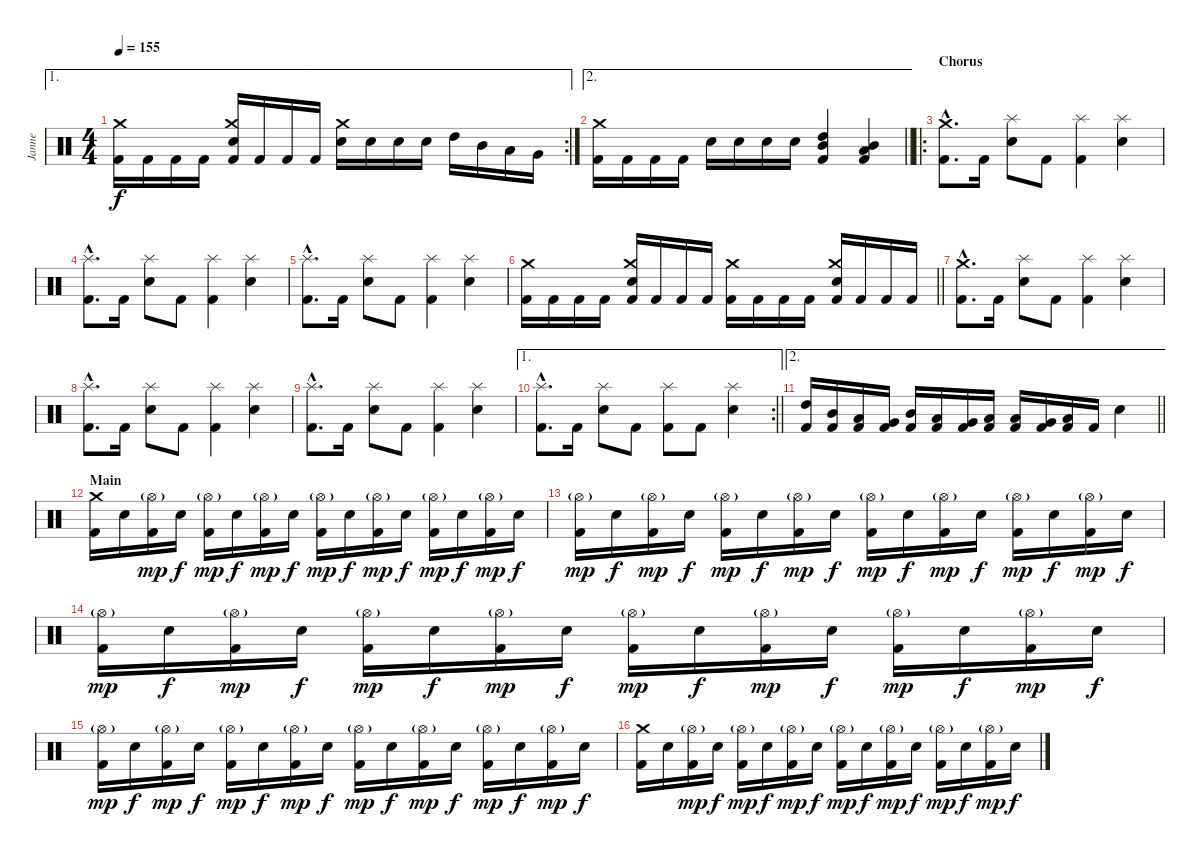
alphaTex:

\track ("Janne" "Janne") {instrument percussion}
\staff {score}
\articulation defaults
\ae 1
\rc 2
\ts (4 4)
\tempo 155
\clef neutral
\ks c
("Kick (hit) 2" "Crash medium (hit)").16{dy f} "Kick (hit) 2".16 "Kick (hit) 2".16 "Kick (hit) 2".16 ("Kick (hit) 2" "Snare (hit) 2" "Crash medium (hit)").16 "Kick (hit) 2".16 "Kick (hit) 2".16 "Kick (hit) 2".16 ("Snare (hit) 2" "Crash medium (hit)").16 "Snare (hit) 2".16 "Snare (hit) 2".16 "Snare (hit) 2".16 "High Tom (hit)".16 "Mid Tom (hit)".16 "Low Tom (hit)".16 "Very Low Tom (hit)".16 |
\ae 2
\barLineRight lightlight
("Kick (hit) 2" "Crash medium (hit)").16 "Kick (hit) 2".16 "Kick (hit) 2".16 "Kick (hit) 2".16 "Snare (hit) 2".16 "Snare (hit) 2".16 "Snare (hit) 2".16 "Snare (hit) 2".16 ("Kick (hit) 2" "High Tom (hit)" "Mid Tom (hit)").4 ("Kick (hit) 2" "Mid Tom (hit)" "Low Tom (hit)").4 |
\ro
\section ("" "Chorus")
("Kick (hit) 2"{hac} "Crash medium (hit)"{hac}).8{d} "Kick (hit) 2".16 ("Snare (hit) 2" "Splash (hit)").8 "Kick (hit) 2".8 ("Kick (hit) 2" "Splash (hit)").4 ("Snare (hit) 2" "Splash (hit)").4 |
("Kick (hit) 2"{hac} "Splash (hit)"{hac}).8{d} "Kick (hit) 2".16 ("Snare (hit) 2" "Splash (hit)").8 "Kick (hit) 2".8 ("Kick (hit) 2" "Splash (hit)").4 ("Snare (hit) 2" "Splash (hit)").4 |
("Kick (hit) 2"{hac} "Splash (hit)"{hac}).8{d} "Kick (hit) 2".16 ("Snare (hit) 2" "Splash (hit)").8 "Kick (hit) 2".8 ("Kick (hit) 2" "Splash (hit)").4 ("Snare (hit) 2" "Splash (hit)").4 |
\barLineRight lightlight
("Kick (hit) 2" "Crash medium (hit)").16 "Kick (hit) 2".16 "Kick (hit) 2".16 "Kick (hit) 2".16 ("Kick (hit) 2" "Snare (hit) 2" "Crash medium (hit)").16 "Kick (hit) 2".16 "Kick (hit) 2".16 "Kick (hit) 2".16 ("Kick (hit) 2" "Crash medium (hit)").16 "Kick (hit) 2".16 "Kick (hit) 2".16 "Kick (hit) 2".16 ("Kick (hit) 2" "Snare (hit) 2" "Crash medium (hit)").16 "Kick (hit) 2".16 "Kick (hit) 2".16 "Kick (hit) 2".16 |
("Kick (hit) 2"{hac} "Crash medium (hit)"{hac}).8{d} "Kick (hit) 2".16 ("Snare (hit) 2" "Splash (hit)").8 "Kick (hit) 2".8 ("Kick (hit) 2" "Splash (hit)").4 ("Snare (hit) 2" "Splash (hit)").4 |
("Kick (hit) 2"{hac} "Splash (hit)"{hac}).8{d} "Kick (hit) 2".16 ("Snare (hit) 2" "Splash (hit)").8 "Kick (hit) 2".8 ("Kick (hit) 2" "Splash (hit)").4 ("Snare (hit) 2" "Splash (hit)").4 |
("Kick (hit) 2"{hac} "Splash (hit)"{hac}).8{d} "Kick (hit) 2".16 ("Snare (hit) 2" "Splash (hit)").8 "Kick (hit) 2".8 ("Kick (hit) 2" "Splash (hit)").4 ("Snare (hit) 2" "Splash (hit)").4 |
\ae 1
\rc 2
\barLineRight lightlight
("Kick (hit) 2"{hac} "Splash (hit)"{hac}).8{d} "Kick (hit) 2".16 ("Snare (hit) 2" "Splash (hit)").8 "Kick (hit) 2".8 ("Kick (hit) 2" "Splash (hit)").8 "Kick (hit) 2".8 ("Snare (hit) 2" "Splash (hit)").4 |
\ae 2
\barLineRight lightlight
("Kick (hit) 2" "High Tom (hit)").16 ("Kick (hit) 2" "Mid Tom (hit)").16 ("Kick (hit) 2" "Low Tom (hit)").16 ("Kick (hit) 2" "Very Low Tom (hit)").16 ("Kick (hit) 2" "Mid Tom (hit)").16 ("Kick (hit) 2" "Low Tom (hit)").16 ("Kick (hit) 2" "Very Low Tom (hit)").16 ("Kick (hit) 2" "Low Floor Tom (hit)").16 ("Kick (hit) 2" "Low Tom (hit)").16 ("Kick (hit) 2" "Very Low Tom (hit)").16 ("Kick (hit) 2" "Low Floor Tom (hit)").16 "Kick (hit) 2".16 "Snare (hit) 2".4 |
\section ("" "Main")
("Kick (hit) 2" "Crash medium (hit)").16 "Snare (hit) 2".16 ("Kick (hit) 2" "Hi-Hat (open)"{g}).16{dy mp} "Snare (hit) 2".16{dy f} ("Kick (hit) 2" "Hi-Hat (open)"{g}).16{dy mp} "Snare (hit) 2".16{dy f} ("Kick (hit) 2" "Hi-Hat (open)"{g}).16{dy mp} "Snare (hit) 2".16{dy f} ("Kick (hit) 2" "Hi-Hat (open)"{g}).16{dy mp} "Snare (hit) 2".16{dy f} ("Kick (hit) 2" "Hi-Hat (open)"{g}).16{dy mp} "Snare (hit) 2".16{dy f} ("Kick (hit) 2" "Hi-Hat (open)"{g}).16{dy mp} "Snare (hit) 2".16{dy f} ("Kick (hit) 2" "Hi-Hat (open)"{g}).16{dy mp} "Snare (hit) 2".16{dy f} |
("Kick (hit) 2" "Hi-Hat (open)"{g}).16{dy mp} "Snare (hit) 2".16{dy f} ("Kick (hit) 2" "Hi-Hat (open)"{g}).16{dy mp} "Snare (hit) 2".16{dy f} ("Kick (hit) 2" "Hi-Hat (open)"{g}).16{dy mp} "Snare (hit) 2".16{dy f} ("Kick (hit) 2" "Hi-Hat (open)"{g}).16{dy mp} "Snare (hit) 2".16{dy f} ("Kick (hit) 2" "Hi-Hat (open)"{g}).16{dy mp} "Snare (hit) 2".16{dy f} ("Kick (hit) 2" "Hi-Hat (open)"{g}).16{dy mp} "Snare (hit) 2".16{dy f} ("Kick (hit) 2" "Hi-Hat (open)"{g}).16{dy mp} "Snare (hit) 2".16{dy f} ("Kick (hit) 2" "Hi-Hat (open)"{g}).16{dy mp} "Snare (hit) 2".16{dy f} |
("Kick (hit) 2" "Hi-Hat (open)"{g}).16{dy mp} "Snare (hit) 2".16{dy f} ("Kick (hit) 2" "Hi-Hat (open)"{g}).16{dy mp} "Snare (hit) 2".16{dy f} ("Kick (hit) 2" "Hi-Hat (open)"{g}).16{dy mp} "Snare (hit) 2".16{dy f} ("Kick (hit) 2" "Hi-Hat (open)"{g}).16{dy mp} "Snare (hit) 2".16{dy f} ("Kick (hit) 2" "Hi-Hat (open)"{g}).16{dy mp} "Snare (hit) 2".16{dy f} ("Kick (hit) 2" "Hi-Hat (open)"{g}).16{dy mp} "Snare (hit) 2".16{dy f} ("Kick (hit) 2" "Hi-Hat (open)"{g}).16{dy mp} "Snare (hit) 2".16{dy f} ("Kick (hit) 2" "Hi-Hat (open)"{g}).16{dy mp} "Snare (hit) 2".16{dy f} |
("Kick (hit) 2" "Hi-Hat (open)"{g}).16{dy mp} "Snare (hit) 2".16{dy f} ("Kick (hit) 2" "Hi-Hat (open)"{g}).16{dy mp} "Snare (hit) 2".16{dy f} ("Kick (hit) 2" "Hi-Hat (open)"{g}).16{dy mp} "Snare (hit) 2".16{dy f} ("Kick (hit) 2" "Hi-Hat (open)"{g}).16{dy mp} "Snare (hit) 2".16{dy f} ("Kick (hit) 2" "Hi-Hat (open)"{g}).16{dy mp} "Snare (hit) 2".16{dy f} ("Kick (hit) 2" "Hi-Hat (open)"{g}).16{dy mp} "Snare (hit) 2".16{dy f} ("Kick (hit) 2" "Hi-Hat (open)"{g}).16{dy mp} "Snare (hit) 2".16{dy f} ("Kick (hit) 2" "Hi-Hat (open)"{g}).16{dy mp} "Snare (hit) 2".16{dy f} |
("Kick (hit) 2" "Crash medium (hit)").16 "Snare (hit) 2".16 ("Kick (hit) 2" "Hi-Hat (open)"{g}).16{dy mp} "Snare (hit) 2".16{dy f} ("Kick (hit) 2" "Hi-Hat (open)"{g}).16{dy mp} "Snare (hit) 2".16{dy f} ("Kick (hit) 2" "Hi-Hat (open)"{g}).16{dy mp} "Snare (hit) 2".16{dy f} ("Kick (hit) 2" "Hi-Hat (open)"{g}).16{dy mp} "Snare (hit) 2".16{dy f} ("Kick (hit) 2" "Hi-Hat (open)"{g}).16{dy mp} "Snare (hit) 2".16{dy f} ("Kick (hit) 2" "Hi-Hat (open)"{g}).16{dy mp} "Snare (hit) 2".16{dy f} ("Kick (hit) 2" "Hi-Hat (open)"{g}).16{dy mp} "Snare (hit) 2".16{dy f}
